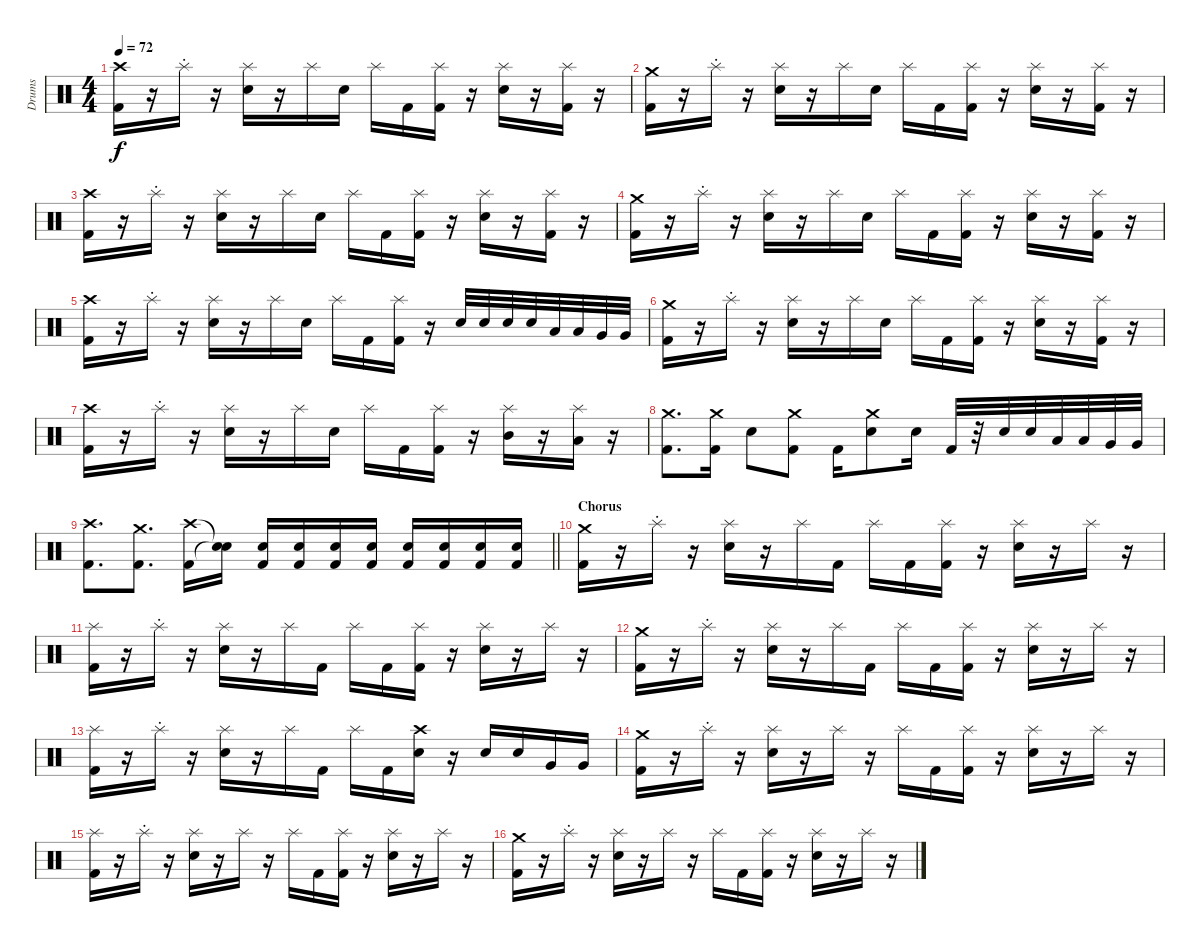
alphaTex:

\track ("Drums" "Drums") {instrument percussion}
\staff {score}
\articulation defaults
\ts (4 4)
\tempo 72
\clef neutral
\ks c
("Crash high (hit)" "Kick (hit) 2").16{dy f} r.16 "Splash (hit)"{st}.16 r.16 ("Splash (hit)" "Electric Snare (hit)").16 r.16 "Splash (hit)".16 "Electric Snare (hit)".16 "Splash (hit)".16 "Kick (hit) 2".16 ("Splash (hit)" "Kick (hit) 2").16 r.16 ("Splash (hit)" "Electric Snare (hit)").16 r.16 ("Splash (hit)" "Kick (hit) 2").16 r.16 |
("Crash medium (hit)" "Kick (hit) 2").16 r.16 "Splash (hit)"{st}.16 r.16 ("Splash (hit)" "Electric Snare (hit)").16 r.16 "Splash (hit)".16 "Electric Snare (hit)".16 "Splash (hit)".16 "Kick (hit) 2".16 ("Splash (hit)" "Kick (hit) 2").16 r.16 ("Splash (hit)" "Electric Snare (hit)").16 r.16 ("Splash (hit)" "Kick (hit) 2").16 r.16 |
("Crash high (hit)" "Kick (hit) 2").16 r.16 "Splash (hit)"{st}.16 r.16 ("Splash (hit)" "Electric Snare (hit)").16 r.16 "Splash (hit)".16 "Electric Snare (hit)".16 "Splash (hit)".16 "Kick (hit) 2".16 ("Splash (hit)" "Kick (hit) 2").16 r.16 ("Splash (hit)" "Electric Snare (hit)").16 r.16 ("Splash (hit)" "Kick (hit) 2").16 r.16 |
("Crash medium (hit)" "Kick (hit) 2").16 r.16 "Splash (hit)"{st}.16 r.16 ("Splash (hit)" "Electric Snare (hit)").16 r.16 "Splash (hit)".16 "Electric Snare (hit)".16 "Splash (hit)".16 "Kick (hit) 2".16 ("Splash (hit)" "Kick (hit) 2").16 r.16 ("Splash (hit)" "Electric Snare (hit)").16 r.16 ("Splash (hit)" "Kick (hit) 2").16 r.16 |
("Crash high (hit)" "Kick (hit) 2").16 r.16 "Splash (hit)"{st}.16 r.16 ("Splash (hit)" "Electric Snare (hit)").16 r.16 "Splash (hit)".16 "Electric Snare (hit)".16 "Splash (hit)".16 "Kick (hit) 2".16 ("Splash (hit)" "Kick (hit) 2").16 r.16 "Electric Snare (hit)".32 "Electric Snare (hit)".32 "Electric Snare (hit)".32 "Electric Snare (hit)".32 "Low Tom (hit)".32 "Low Tom (hit)".32 "Very Low Tom (hit)".32 "Very Low Tom (hit)".32 |
("Crash medium (hit)" "Kick (hit) 2").16 r.16 "Splash (hit)"{st}.16 r.16 ("Splash (hit)" "Electric Snare (hit)").16 r.16 "Splash (hit)".16 "Electric Snare (hit)".16 "Splash (hit)".16 "Kick (hit) 2".16 ("Splash (hit)" "Kick (hit) 2").16 r.16 ("Splash (hit)" "Electric Snare (hit)").16 r.16 ("Splash (hit)" "Kick (hit) 2").16 r.16 |
("Crash high (hit)" "Kick (hit) 2").16 r.16 "Splash (hit)"{st}.16 r.16 ("Splash (hit)" "Electric Snare (hit)").16 r.16 "Splash (hit)".16 "Electric Snare (hit)".16 "Splash (hit)".16 "Kick (hit) 2".16 ("Splash (hit)" "Kick (hit) 2").16 r.16 ("Splash (hit)" "Mid Tom (hit)").16 r.16 ("Splash (hit)" "Low Tom (hit)").16 r.16 |
("Crash medium (hit)" "Kick (hit) 2").8{d} ("Crash medium (hit)" "Kick (hit) 2").16 "Electric Snare (hit)".8 ("Crash medium (hit)" "Kick (hit) 2").8 "Kick (hit) 2".16 ("Crash medium (hit)" "Electric Snare (hit)").8 "Electric Snare (hit)".16 "Kick (hit) 2".32 r.32 "Electric Snare (hit)".32 "Electric Snare (hit)".32 "Low Tom (hit)".32 "Low Tom (hit)".32 "Very Low Tom (hit)".32 "Very Low Tom (hit)".32 |
\barLineRight lightlight
("Crash high (hit)" "Kick (hit) 2").8{d} ("Crash medium (hit)" "Kick (hit) 2").8{d} ("Crash high (hit)" "Kick (hit) 2").16 ("Snare (hit)"{t} "Snare (hit)"{t}).16{volume 3} ("Electric Snare (hit)" "Kick (hit) 2").16{volume 11} ("Electric Snare (hit)" "Kick (hit) 2").16 ("Electric Snare (hit)" "Kick (hit) 2").16 ("Electric Snare (hit)" "Kick (hit) 2").16 ("Electric Snare (hit)" "Kick (hit) 2").16 ("Electric Snare (hit)" "Kick (hit) 2").16 ("Electric Snare (hit)" "Kick (hit) 2").16 ("Electric Snare (hit)" "Kick (hit) 2").16 |
\section ("" "Chorus")
("Crash medium (hit)" "Kick (hit) 2").16 r.16 "Splash (hit)"{st}.16 r.16 ("Splash (hit)" "Electric Snare (hit)").16 r.16 "Splash (hit)".16 "Kick (hit) 2".16 "Splash (hit)".16 "Kick (hit) 2".16 ("Splash (hit)" "Kick (hit) 2").16 r.16 ("Splash (hit)" "Electric Snare (hit)").16 r.16 "Splash (hit)".16 r.16 |
("Splash (hit)" "Kick (hit) 2").16 r.16 "Splash (hit)"{st}.16 r.16 ("Splash (hit)" "Electric Snare (hit)").16 r.16 "Splash (hit)".16 "Kick (hit) 2".16 "Splash (hit)".16 "Kick (hit) 2".16 ("Splash (hit)" "Kick (hit) 2").16 r.16 ("Splash (hit)" "Electric Snare (hit)").16 r.16 "Splash (hit)".16 r.16 |
("Crash medium (hit)" "Kick (hit) 2").16 r.16 "Splash (hit)"{st}.16 r.16 ("Splash (hit)" "Electric Snare (hit)").16 r.16 "Splash (hit)".16 "Kick (hit) 2".16 "Splash (hit)".16 "Kick (hit) 2".16 ("Splash (hit)" "Kick (hit) 2").16 r.16 ("Splash (hit)" "Electric Snare (hit)").16 r.16 "Splash (hit)".16 r.16 |
("Splash (hit)" "Kick (hit) 2").16 r.16 "Splash (hit)"{st}.16 r.16 ("Splash (hit)" "Electric Snare (hit)").16 r.16 "Splash (hit)".16 "Kick (hit) 2".16 "Splash (hit)".16 "Kick (hit) 2".16 ("Crash high (hit)" "Electric Snare (hit)").16 r.16 "Electric Snare (hit)".16 "Electric Snare (hit)".16 "Very Low Tom (hit)".16 "Very Low Tom (hit)".16 |
("Crash medium (hit)" "Kick (hit) 2").16 r.16 "Splash (hit)"{st}.16 r.16 ("Splash (hit)" "Electric Snare (hit)").16 r.16 "Splash (hit)".16 r.16 "Splash (hit)".16 "Kick (hit) 2".16 ("Splash (hit)" "Kick (hit) 2").16 r.16 ("Splash (hit)" "Electric Snare (hit)").16 r.16 "Splash (hit)".16 r.16 |
("Splash (hit)" "Kick (hit) 2").16 r.16 "Splash (hit)"{st}.16 r.16 ("Splash (hit)" "Electric Snare (hit)").16 r.16 "Splash (hit)".16 r.16 "Splash (hit)".16 "Kick (hit) 2".16 ("Splash (hit)" "Kick (hit) 2").16 r.16 ("Splash (hit)" "Electric Snare (hit)").16 r.16 "Splash (hit)".16 r.16 |
("Crash medium (hit)" "Kick (hit) 2").16 r.16 "Splash (hit)"{st}.16 r.16 ("Splash (hit)" "Electric Snare (hit)").16 r.16 "Splash (hit)".16 r.16 "Splash (hit)".16 "Kick (hit) 2".16 ("Splash (hit)" "Kick (hit) 2").16 r.16 ("Splash (hit)" "Electric Snare (hit)").16 r.16 "Splash (hit)".16 r.16
